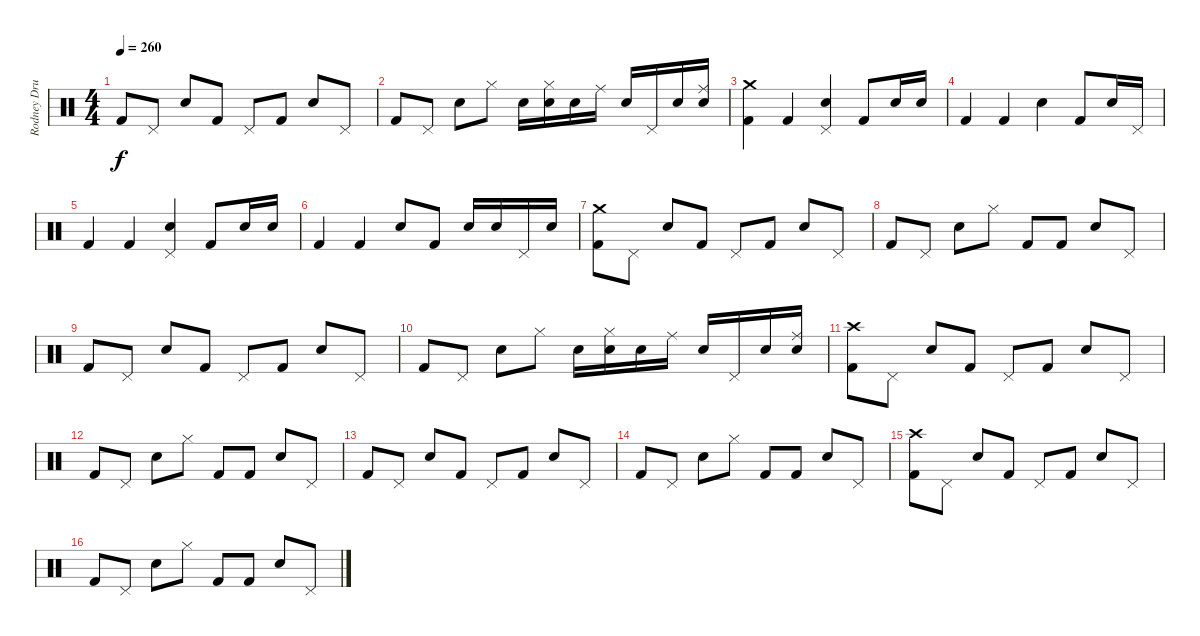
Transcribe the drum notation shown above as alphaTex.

\track ("Rodney Drums" "Rodney Dru") {instrument percussion}
\staff {score}
\articulation defaults
\ts (4 4)
\tempo 260
\clef neutral
\ks c "Kick (hit) 2".8{dy f} "Pedal Hi-Hat (hit)".8 "Electric Snare (hit)".8 "Kick (hit) 2".8 "Pedal Hi-Hat (hit)".8 "Kick (hit) 2".8 "Electric Snare (hit)".8 "Pedal Hi-Hat (hit)".8
|
"Kick (hit) 2".8 "Pedal Hi-Hat (hit)".8 "Electric Snare (hit)".8 "Hi-Hat (closed)".8 "Electric Snare (hit)".16 ("Hi-Hat (closed)" "Electric Snare (hit)").16 "Electric Snare (hit)".16 "Ride (middle)".16 "Electric Snare (hit)".16 "Pedal Hi-Hat (hit)".16 "Electric Snare (hit)".16 ("Electric Snare (hit)" "Ride (middle)").16 |
("Crash medium (hit)" "Kick (hit) 2").4 "Kick (hit) 2".4 ("Pedal Hi-Hat (hit)" "Electric Snare (hit)").4 "Kick (hit) 2".8 "Electric Snare (hit)".16 "Electric Snare (hit)".16 |
"Kick (hit) 2".4 "Kick (hit) 2".4 "Electric Snare (hit)".4 "Kick (hit) 2".8 "Electric Snare (hit)".16 "Pedal Hi-Hat (hit)".16 |
"Kick (hit) 2".4 "Kick (hit) 2".4 ("Pedal Hi-Hat (hit)" "Electric Snare (hit)").4 "Kick (hit) 2".8 "Electric Snare (hit)".16 "Electric Snare (hit)".16 |
"Kick (hit) 2".4 "Kick (hit) 2".4 "Electric Snare (hit)".8 "Kick (hit) 2".8 "Electric Snare (hit)".16 "Electric Snare (hit)".16 "Pedal Hi-Hat (hit)".16 "Electric Snare (hit)".16 |
("Crash medium (hit)" "Kick (hit) 2").8 "Pedal Hi-Hat (hit)".8 "Electric Snare (hit)".8 "Kick (hit) 2".8 "Pedal Hi-Hat (hit)".8 "Kick (hit) 2".8 "Electric Snare (hit)".8 "Pedal Hi-Hat (hit)".8 |
"Kick (hit) 2".8 "Pedal Hi-Hat (hit)".8 "Electric Snare (hit)".8 "Hi-Hat (closed)".8 "Kick (hit) 2".8 "Kick (hit) 2".8 "Electric Snare (hit)".8 "Pedal Hi-Hat (hit)".8 |
"Kick (hit) 2".8 "Pedal Hi-Hat (hit)".8 "Electric Snare (hit)".8 "Kick (hit) 2".8 "Pedal Hi-Hat (hit)".8 "Kick (hit) 2".8 "Electric Snare (hit)".8 "Pedal Hi-Hat (hit)".8 |
"Kick (hit) 2".8 "Pedal Hi-Hat (hit)".8 "Electric Snare (hit)".8 "Hi-Hat (closed)".8 "Electric Snare (hit)".16 ("Hi-Hat (closed)" "Electric Snare (hit)").16 "Electric Snare (hit)".16 "Ride (middle)".16 "Electric Snare (hit)".16 "Pedal Hi-Hat (hit)".16 "Electric Snare (hit)".16 ("Electric Snare (hit)" "Ride (middle)").16 |
("Crash high (hit)" "Kick (hit) 2").8 "Pedal Hi-Hat (hit)".8 "Electric Snare (hit)".8 "Kick (hit) 2".8 "Pedal Hi-Hat (hit)".8 "Kick (hit) 2".8 "Electric Snare (hit)".8 "Pedal Hi-Hat (hit)".8 |
"Kick (hit) 2".8 "Pedal Hi-Hat (hit)".8 "Electric Snare (hit)".8 "Hi-Hat (closed)".8 "Kick (hit) 2".8 "Kick (hit) 2".8 "Electric Snare (hit)".8 "Pedal Hi-Hat (hit)".8 |
"Kick (hit) 2".8 "Pedal Hi-Hat (hit)".8 "Electric Snare (hit)".8 "Kick (hit) 2".8 "Pedal Hi-Hat (hit)".8 "Kick (hit) 2".8 "Electric Snare (hit)".8 "Pedal Hi-Hat (hit)".8 |
"Kick (hit) 2".8 "Pedal Hi-Hat (hit)".8 "Electric Snare (hit)".8 "Hi-Hat (closed)".8 "Kick (hit) 2".8 "Kick (hit) 2".8 "Electric Snare (hit)".8 "Pedal Hi-Hat (hit)".8 |
("Crash high (hit)" "Kick (hit) 2").8 "Pedal Hi-Hat (hit)".8 "Electric Snare (hit)".8 "Kick (hit) 2".8 "Pedal Hi-Hat (hit)".8 "Kick (hit) 2".8 "Electric Snare (hit)".8 "Pedal Hi-Hat (hit)".8 |
"Kick (hit) 2".8 "Pedal Hi-Hat (hit)".8 "Electric Snare (hit)".8 "Hi-Hat (closed)".8 "Kick (hit) 2".8 "Kick (hit) 2".8 "Electric Snare (hit)".8 "Pedal Hi-Hat (hit)".8
